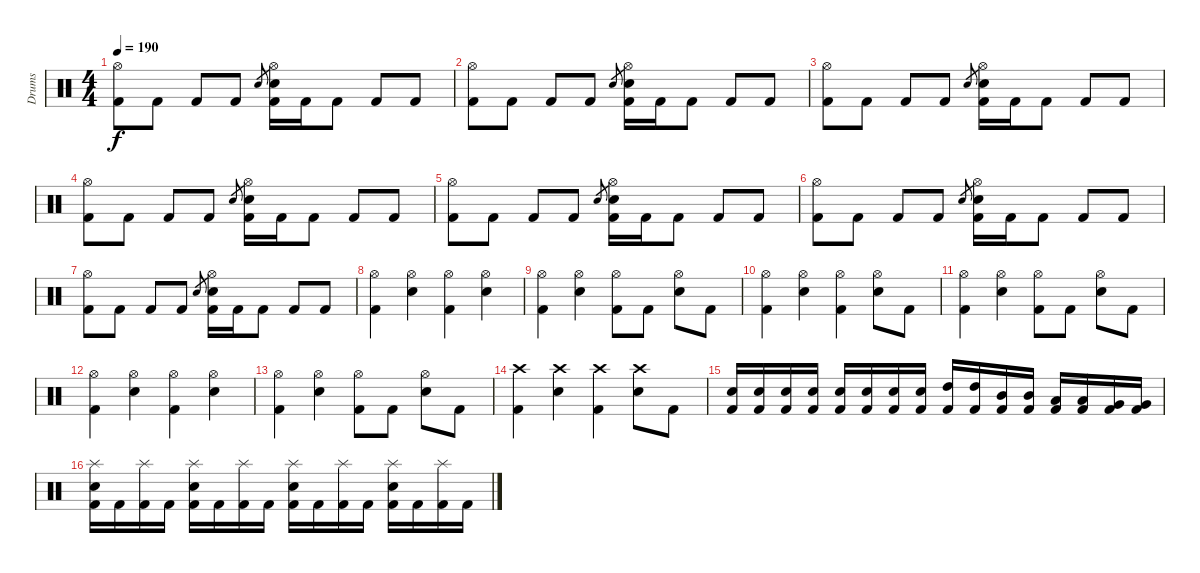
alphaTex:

\track ("Drums" "Drums") {instrument percussion}
\staff {score}
\articulation defaults
\ts (4 4)
\tempo 190
\clef neutral
\ks c
("Hi-Hat (open)" "Kick (hit) 2").8{dy f} "Kick (hit) 2".8 "Kick (hit) 2".8 "Kick (hit) 2".8 "Snare (hit) 2".8{gr} ("Hi-Hat (open)" "Snare (hit) 2" "Kick (hit) 2").16 "Kick (hit) 2".16 "Kick (hit) 2".8 "Kick (hit) 2".8 "Kick (hit) 2".8 |
("Hi-Hat (open)" "Kick (hit) 2").8 "Kick (hit) 2".8 "Kick (hit) 2".8 "Kick (hit) 2".8 "Snare (hit) 2".8{gr} ("Hi-Hat (open)" "Snare (hit) 2" "Kick (hit) 2").16 "Kick (hit) 2".16 "Kick (hit) 2".8 "Kick (hit) 2".8 "Kick (hit) 2".8 |
("Hi-Hat (open)" "Kick (hit) 2").8 "Kick (hit) 2".8 "Kick (hit) 2".8 "Kick (hit) 2".8 "Snare (hit) 2".8{gr} ("Hi-Hat (open)" "Snare (hit) 2" "Kick (hit) 2").16 "Kick (hit) 2".16 "Kick (hit) 2".8 "Kick (hit) 2".8 "Kick (hit) 2".8 |
("Hi-Hat (open)" "Kick (hit) 2").8 "Kick (hit) 2".8 "Kick (hit) 2".8 "Kick (hit) 2".8 "Snare (hit) 2".8{gr} ("Hi-Hat (open)" "Snare (hit) 2" "Kick (hit) 2").16 "Kick (hit) 2".16 "Kick (hit) 2".8 "Kick (hit) 2".8 "Kick (hit) 2".8 |
("Hi-Hat (open)" "Kick (hit) 2").8 "Kick (hit) 2".8 "Kick (hit) 2".8 "Kick (hit) 2".8 "Snare (hit) 2".8{gr} ("Hi-Hat (open)" "Snare (hit) 2" "Kick (hit) 2").16 "Kick (hit) 2".16 "Kick (hit) 2".8 "Kick (hit) 2".8 "Kick (hit) 2".8 |
("Hi-Hat (open)" "Kick (hit) 2").8 "Kick (hit) 2".8 "Kick (hit) 2".8 "Kick (hit) 2".8 "Snare (hit) 2".8{gr} ("Hi-Hat (open)" "Snare (hit) 2" "Kick (hit) 2").16 "Kick (hit) 2".16 "Kick (hit) 2".8 "Kick (hit) 2".8 "Kick (hit) 2".8 |
("Hi-Hat (open)" "Kick (hit) 2").8 "Kick (hit) 2".8 "Kick (hit) 2".8 "Kick (hit) 2".8 "Snare (hit) 2".8{gr} ("Hi-Hat (open)" "Snare (hit) 2" "Kick (hit) 2").16 "Kick (hit) 2".16 "Kick (hit) 2".8 "Kick (hit) 2".8 "Kick (hit) 2".8 |
("Hi-Hat (open)" "Kick (hit) 2").4 ("Hi-Hat (open)" "Snare (hit) 2").4 ("Hi-Hat (open)" "Kick (hit) 2").4 ("Hi-Hat (open)" "Snare (hit) 2").4 |
("Hi-Hat (open)" "Kick (hit) 2").4 ("Hi-Hat (open)" "Snare (hit) 2").4 ("Hi-Hat (open)" "Kick (hit) 2").8 "Kick (hit) 2".8 ("Hi-Hat (open)" "Snare (hit) 2").8 "Kick (hit) 2".8 |
("Hi-Hat (open)" "Kick (hit) 2").4 ("Hi-Hat (open)" "Snare (hit) 2").4 ("Hi-Hat (open)" "Kick (hit) 2").4 ("Hi-Hat (open)" "Snare (hit) 2").8 "Kick (hit) 2".8 |
("Hi-Hat (open)" "Kick (hit) 2").4 ("Hi-Hat (open)" "Snare (hit) 2").4 ("Hi-Hat (open)" "Kick (hit) 2").8 "Kick (hit) 2".8 ("Hi-Hat (open)" "Snare (hit) 2").8 "Kick (hit) 2".8 |
("Hi-Hat (open)" "Kick (hit) 2").4 ("Hi-Hat (open)" "Snare (hit) 2").4 ("Hi-Hat (open)" "Kick (hit) 2").4 ("Hi-Hat (open)" "Snare (hit) 2").4 |
("Hi-Hat (open)" "Kick (hit) 2").4 ("Hi-Hat (open)" "Snare (hit) 2").4 ("Hi-Hat (open)" "Kick (hit) 2").8 "Kick (hit) 2".8 ("Hi-Hat (open)" "Snare (hit) 2").8 "Kick (hit) 2".8 |
("Crash high (hit)" "Kick (hit) 2").4 ("Crash high (hit)" "Snare (hit) 2").4 ("Crash high (hit)" "Kick (hit) 2").4 ("Crash high (hit)" "Snare (hit) 2").8 "Kick (hit) 2".8 |
("Snare (hit) 2" "Kick (hit) 2").16 ("Snare (hit) 2" "Kick (hit) 2").16 ("Snare (hit) 2" "Kick (hit) 2").16 ("Snare (hit) 2" "Kick (hit) 2").16 ("Snare (hit) 2" "Kick (hit) 2").16 ("Snare (hit) 2" "Kick (hit) 2").16 ("Snare (hit) 2" "Kick (hit) 2").16 ("Snare (hit) 2" "Kick (hit) 2").16 ("High Tom (hit)" "Kick (hit) 2").16 ("High Tom (hit)" "Kick (hit) 2").16 ("Mid Tom (hit)" "Kick (hit) 2").16 ("Mid Tom (hit)" "Kick (hit) 2").16 ("Low Tom (hit)" "Kick (hit) 2").16 ("Low Tom (hit)" "Kick (hit) 2").16 ("Very Low Tom (hit)" "Kick (hit) 2").16 ("Very Low Tom (hit)" "Kick (hit) 2").16 |
("Splash (hit)" "Snare (hit) 2" "Kick (hit) 2").16 "Kick (hit) 2".16 ("Splash (hit)" "Kick (hit) 2").16 "Kick (hit) 2".16 ("Splash (hit)" "Snare (hit) 2" "Kick (hit) 2").16 "Kick (hit) 2".16 ("Splash (hit)" "Kick (hit) 2").16 "Kick (hit) 2".16 ("Splash (hit)" "Snare (hit) 2" "Kick (hit) 2").16 "Kick (hit) 2".16 ("Splash (hit)" "Kick (hit) 2").16 "Kick (hit) 2".16 ("Splash (hit)" "Snare (hit) 2" "Kick (hit) 2").16 "Kick (hit) 2".16 ("Splash (hit)" "Kick (hit) 2").16 "Kick (hit) 2".16
